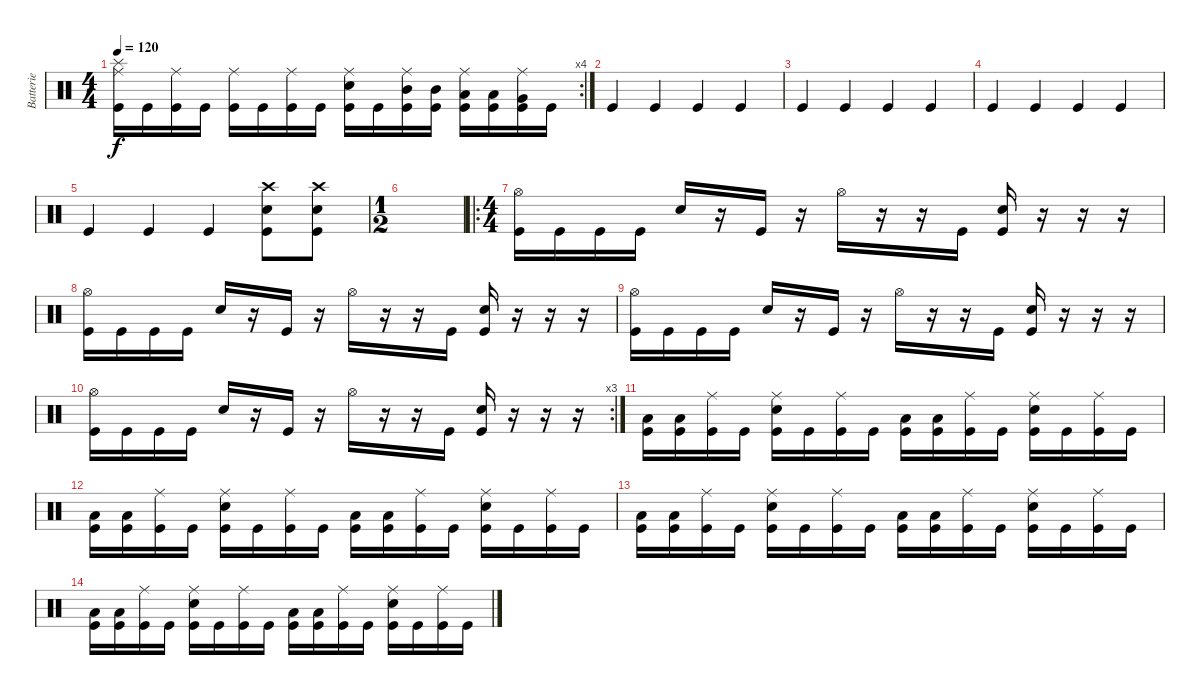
\track ("Batterie" "Batterie") {instrument percussion}
\staff {score}
\articulation defaults
\rc 4
\ts (4 4)
\tempo 120
\clef neutral
\ks c
("Ride (middle)" "Splash (hit)" "Kick (hit)").16{dy f} "Kick (hit)".16 ("Ride (middle)" "Kick (hit)").16 "Kick (hit)".16 ("Ride (middle)" "Kick (hit)").16 "Kick (hit)".16 ("Ride (middle)" "Kick (hit)").16 "Kick (hit)".16 ("Ride (middle)" "Electric Snare (hit)" "Kick (hit)").16 "Kick (hit)".16 ("Ride (middle)" "Mid Tom (hit)" "Kick (hit)").16 ("Mid Tom (hit)" "Kick (hit)").16 ("Ride (middle)" "Low Tom (hit)" "Kick (hit)").16 ("Low Tom (hit)" "Kick (hit)").16 ("Ride (middle)" "Very Low Tom (hit)" "Kick (hit)").16 "Kick (hit)".16 |
"Kick (hit)".4 "Kick (hit)".4 "Kick (hit)".4 "Kick (hit)".4 |
"Kick (hit)".4 "Kick (hit)".4 "Kick (hit)".4 "Kick (hit)".4 |
"Kick (hit)".4 "Kick (hit)".4 "Kick (hit)".4 "Kick (hit)".4 |
"Kick (hit)".4 "Kick (hit)".4 "Kick (hit)".4 ("Crash high (hit)" "Electric Snare (hit)" "Kick (hit)").8 ("Crash high (hit)" "Electric Snare (hit)" "Kick (hit)").8 |
\ts (1 2)
|
\ro
\ts (4 4)
("Hi-Hat (open)" "Kick (hit)").16 "Kick (hit)".16 "Kick (hit)".16 "Kick (hit)".16 "Snare (hit) 2".16 r.16 "Kick (hit)".16 r.16 "Hi-Hat (open)".16 r.16 r.16 "Kick (hit)".16 ("Snare (hit) 2" "Kick (hit)").16 r.16 r.16 r.16 |
("Hi-Hat (open)" "Kick (hit)").16 "Kick (hit)".16 "Kick (hit)".16 "Kick (hit)".16 "Snare (hit) 2".16 r.16 "Kick (hit)".16 r.16 "Hi-Hat (open)".16 r.16 r.16 "Kick (hit)".16 ("Snare (hit) 2" "Kick (hit)").16 r.16 r.16 r.16 |
("Hi-Hat (open)" "Kick (hit)").16 "Kick (hit)".16 "Kick (hit)".16 "Kick (hit)".16 "Snare (hit) 2".16 r.16 "Kick (hit)".16 r.16 "Hi-Hat (open)".16 r.16 r.16 "Kick (hit)".16 ("Snare (hit) 2" "Kick (hit)").16 r.16 r.16 r.16 |
\rc 3
("Hi-Hat (open)" "Kick (hit)").16 "Kick (hit)".16 "Kick (hit)".16 "Kick (hit)".16 "Snare (hit) 2".16 r.16 "Kick (hit)".16 r.16 "Hi-Hat (open)".16 r.16 r.16 "Kick (hit)".16 ("Snare (hit) 2" "Kick (hit)").16 r.16 r.16 r.16 |
("Low Tom (hit)" "Kick (hit)").16 ("Low Tom (hit)" "Kick (hit)").16 ("Ride (middle)" "Kick (hit)").16 "Kick (hit)".16 ("Ride (middle)" "Electric Snare (hit)" "Kick (hit)").16 "Kick (hit)".16 ("Ride (middle)" "Kick (hit)").16 "Kick (hit)".16 ("Low Tom (hit)" "Kick (hit)").16 ("Low Tom (hit)" "Kick (hit)").16 ("Ride (middle)" "Kick (hit)").16 "Kick (hit)".16 ("Ride (middle)" "Electric Snare (hit)" "Kick (hit)").16 "Kick (hit)".16 ("Ride (middle)" "Kick (hit)").16 "Kick (hit)".16 |
("Low Tom (hit)" "Kick (hit)").16 ("Low Tom (hit)" "Kick (hit)").16 ("Ride (middle)" "Kick (hit)").16 "Kick (hit)".16 ("Ride (middle)" "Electric Snare (hit)" "Kick (hit)").16 "Kick (hit)".16 ("Ride (middle)" "Kick (hit)").16 "Kick (hit)".16 ("Low Tom (hit)" "Kick (hit)").16 ("Low Tom (hit)" "Kick (hit)").16 ("Ride (middle)" "Kick (hit)").16 "Kick (hit)".16 ("Ride (middle)" "Electric Snare (hit)" "Kick (hit)").16 "Kick (hit)".16 ("Ride (middle)" "Kick (hit)").16 "Kick (hit)".16 |
("Low Tom (hit)" "Kick (hit)").16 ("Low Tom (hit)" "Kick (hit)").16 ("Ride (middle)" "Kick (hit)").16 "Kick (hit)".16 ("Ride (middle)" "Electric Snare (hit)" "Kick (hit)").16 "Kick (hit)".16 ("Ride (middle)" "Kick (hit)").16 "Kick (hit)".16 ("Low Tom (hit)" "Kick (hit)").16 ("Low Tom (hit)" "Kick (hit)").16 ("Ride (middle)" "Kick (hit)").16 "Kick (hit)".16 ("Ride (middle)" "Electric Snare (hit)" "Kick (hit)").16 "Kick (hit)".16 ("Ride (middle)" "Kick (hit)").16 "Kick (hit)".16 |
("Low Tom (hit)" "Kick (hit)").16 ("Low Tom (hit)" "Kick (hit)").16 ("Ride (middle)" "Kick (hit)").16 "Kick (hit)".16 ("Ride (middle)" "Electric Snare (hit)" "Kick (hit)").16 "Kick (hit)".16 ("Ride (middle)" "Kick (hit)").16 "Kick (hit)".16 ("Low Tom (hit)" "Kick (hit)").16 ("Low Tom (hit)" "Kick (hit)").16 ("Ride (middle)" "Kick (hit)").16 "Kick (hit)".16 ("Ride (middle)" "Electric Snare (hit)" "Kick (hit)").16 "Kick (hit)".16 ("Ride (middle)" "Kick (hit)").16 "Kick (hit)".16
